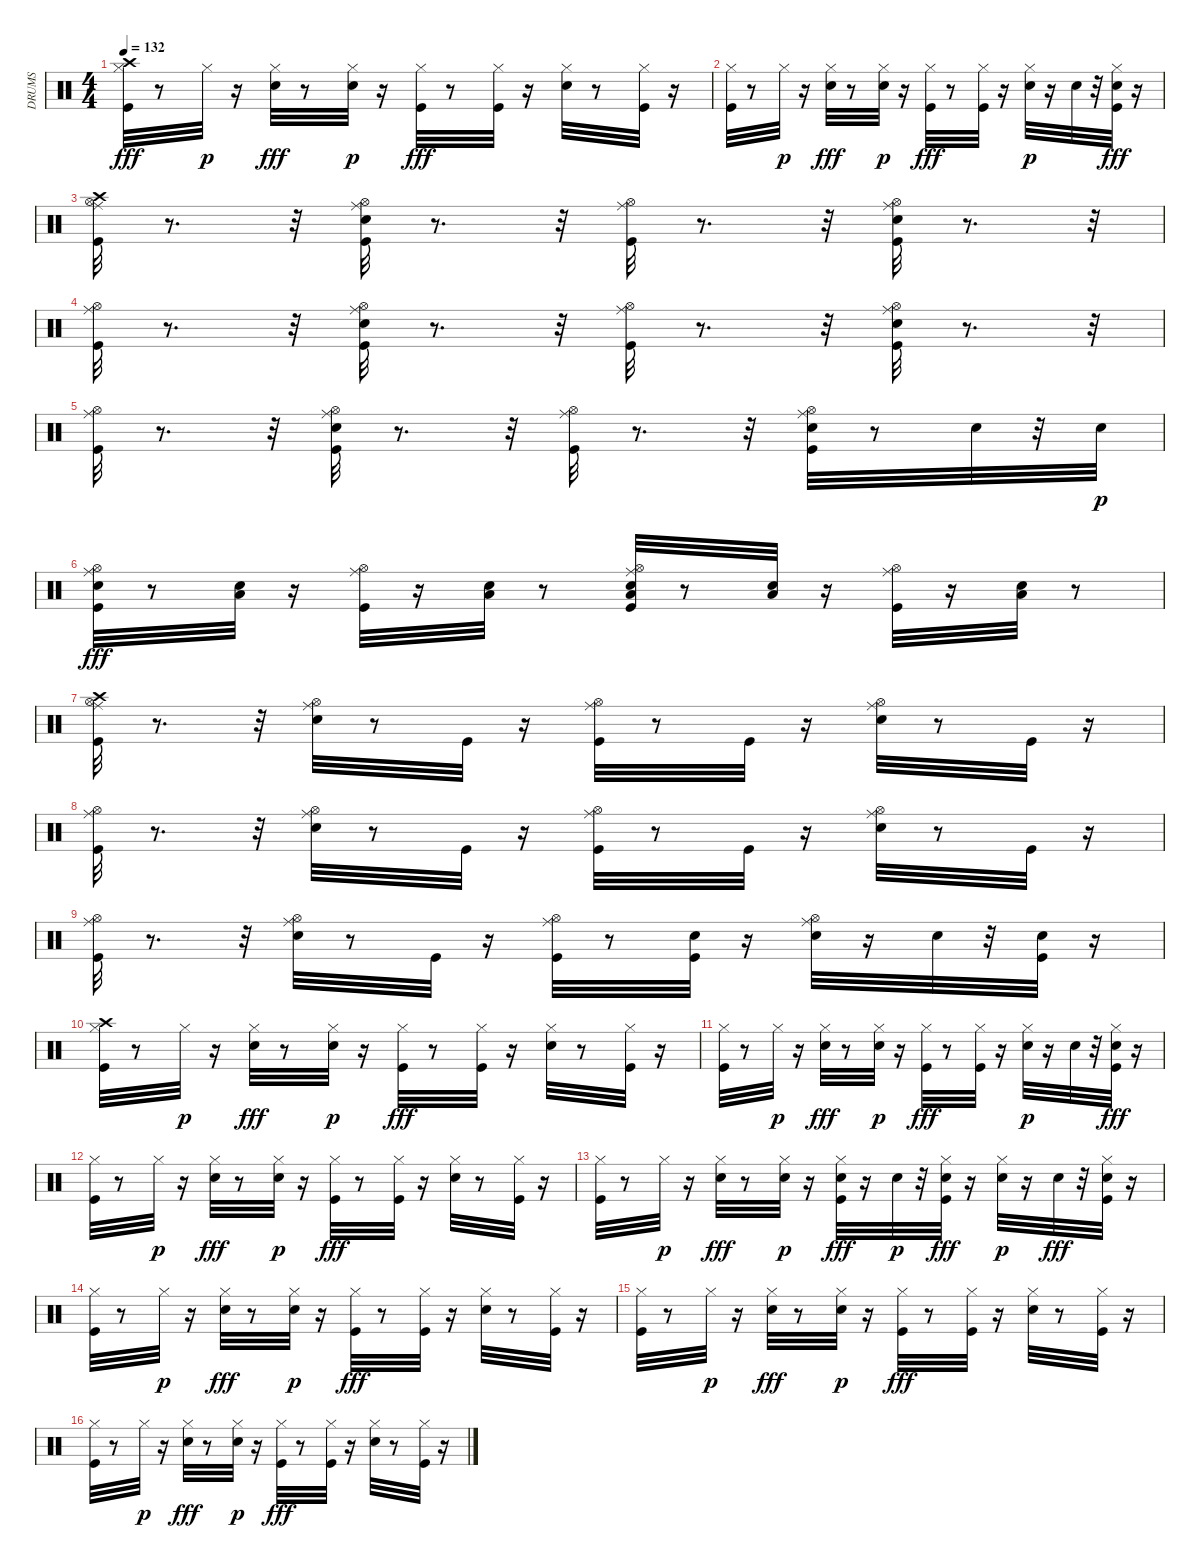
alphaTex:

\track ("DRUMS" "DRUMS") {instrument percussion}
\staff {score}
\articulation defaults
\ts (4 4)
\tempo 132
\clef neutral
\ks c
("Hi-Hat (closed)" "Kick (hit)" "Crash high (hit)").32{dy fff} r.8 "Hi-Hat (closed)".32{dy p} r.16 ("Hi-Hat (closed)" "Snare (hit) 2").32{dy fff} r.8 ("Hi-Hat (closed)" "Snare (hit) 2").32{dy p} r.16 ("Hi-Hat (closed)" "Kick (hit)").32{dy fff} r.8 ("Hi-Hat (closed)" "Kick (hit)").32 r.16 ("Hi-Hat (closed)" "Snare (hit) 2").32 r.8 ("Hi-Hat (closed)" "Kick (hit)").32 r.16 |
("Hi-Hat (closed)" "Kick (hit)").32 r.8 "Hi-Hat (closed)".32{dy p} r.16 ("Hi-Hat (closed)" "Snare (hit) 2").32{dy fff} r.8 ("Hi-Hat (closed)" "Snare (hit) 2").32{dy p} r.16 ("Hi-Hat (closed)" "Kick (hit)").32{dy fff} r.8 ("Hi-Hat (closed)" "Kick (hit)").32 r.16 ("Hi-Hat (closed)" "Snare (hit) 2").32{dy p} r.16 "Snare (hit) 2".32 r.32 ("Hi-Hat (closed)" "Snare (hit) 2" "Kick (hit)").32{dy fff} r.16 |
("Kick (hit)" "Crash high (hit)" "Ride (middle)" "Hi-Hat (open)").32 r.8{d} r.32 ("Snare (hit) 2" "Kick (hit)" "Ride (middle)" "Hi-Hat (open)").32 r.8{d} r.32 ("Kick (hit)" "Ride (middle)" "Hi-Hat (open)").32 r.8{d} r.32 ("Snare (hit) 2" "Kick (hit)" "Ride (middle)" "Hi-Hat (open)").32 r.8{d} r.32 |
("Kick (hit)" "Ride (middle)" "Hi-Hat (open)").32 r.8{d} r.32 ("Snare (hit) 2" "Kick (hit)" "Ride (middle)" "Hi-Hat (open)").32 r.8{d} r.32 ("Kick (hit)" "Ride (middle)" "Hi-Hat (open)").32 r.8{d} r.32 ("Snare (hit) 2" "Kick (hit)" "Ride (middle)" "Hi-Hat (open)").32 r.8{d} r.32 |
("Kick (hit)" "Ride (middle)" "Hi-Hat (open)").32 r.8{d} r.32 ("Snare (hit) 2" "Kick (hit)" "Ride (middle)" "Hi-Hat (open)").32 r.8{d} r.32 ("Kick (hit)" "Ride (middle)" "Hi-Hat (open)").32 r.8{d} r.32 ("Snare (hit) 2" "Kick (hit)" "Ride (middle)" "Hi-Hat (open)").32 r.8 "Snare (hit) 2".32 r.32 "Snare (hit) 2".32{dy p} |
("Snare (hit) 2" "Kick (hit)" "Ride (middle)" "Hi-Hat (open)").32{dy fff} r.8 ("Snare (hit) 2" "Low Tom (hit)").32 r.16 ("Kick (hit)" "Ride (middle)" "Hi-Hat (open)").32 r.16 ("Snare (hit) 2" "Low Tom (hit)").32 r.8 ("Snare (hit) 2" "Low Tom (hit)" "Kick (hit)" "Ride (middle)" "Hi-Hat (open)").32 r.8 ("Snare (hit) 2" "Low Tom (hit)").32 r.16 ("Kick (hit)" "Ride (middle)" "Hi-Hat (open)").32 r.16 ("Snare (hit) 2" "Low Tom (hit)").32 r.8 |
("Kick (hit)" "Crash high (hit)" "Ride (middle)" "Hi-Hat (open)").32 r.8{d} r.32 ("Snare (hit) 2" "Ride (middle)" "Hi-Hat (open)").32 r.8 "Kick (hit)".32 r.16 ("Kick (hit)" "Ride (middle)" "Hi-Hat (open)").32 r.8 "Kick (hit)".32 r.16 ("Snare (hit) 2" "Ride (middle)" "Hi-Hat (open)").32 r.8 "Kick (hit)".32 r.16 |
("Kick (hit)" "Ride (middle)" "Hi-Hat (open)").32 r.8{d} r.32 ("Snare (hit) 2" "Ride (middle)" "Hi-Hat (open)").32 r.8 "Kick (hit)".32 r.16 ("Kick (hit)" "Ride (middle)" "Hi-Hat (open)").32 r.8 "Kick (hit)".32 r.16 ("Snare (hit) 2" "Ride (middle)" "Hi-Hat (open)").32 r.8 "Kick (hit)".32 r.16 |
("Kick (hit)" "Ride (middle)" "Hi-Hat (open)").32 r.8{d} r.32 ("Snare (hit) 2" "Ride (middle)" "Hi-Hat (open)").32 r.8 "Kick (hit)".32 r.16 ("Kick (hit)" "Ride (middle)" "Hi-Hat (open)").32 r.8 ("Snare (hit) 2" "Kick (hit)").32 r.16 ("Snare (hit) 2" "Ride (middle)" "Hi-Hat (open)").32 r.16 "Snare (hit) 2".32 r.32 ("Snare (hit) 2" "Kick (hit)").32 r.16 |
("Hi-Hat (closed)" "Kick (hit)" "Crash high (hit)").32 r.8 "Hi-Hat (closed)".32{dy p} r.16 ("Hi-Hat (closed)" "Snare (hit) 2").32{dy fff} r.8 ("Hi-Hat (closed)" "Snare (hit) 2").32{dy p} r.16 ("Hi-Hat (closed)" "Kick (hit)").32{dy fff} r.8 ("Hi-Hat (closed)" "Kick (hit)").32 r.16 ("Hi-Hat (closed)" "Snare (hit) 2").32 r.8 ("Hi-Hat (closed)" "Kick (hit)").32 r.16 |
("Hi-Hat (closed)" "Kick (hit)").32 r.8 "Hi-Hat (closed)".32{dy p} r.16 ("Hi-Hat (closed)" "Snare (hit) 2").32{dy fff} r.8 ("Hi-Hat (closed)" "Snare (hit) 2").32{dy p} r.16 ("Hi-Hat (closed)" "Kick (hit)").32{dy fff} r.8 ("Hi-Hat (closed)" "Kick (hit)").32 r.16 ("Hi-Hat (closed)" "Snare (hit) 2").32{dy p} r.16 "Snare (hit) 2".32 r.32 ("Hi-Hat (closed)" "Snare (hit) 2" "Kick (hit)").32{dy fff} r.16 |
("Hi-Hat (closed)" "Kick (hit)").32 r.8 "Hi-Hat (closed)".32{dy p} r.16 ("Hi-Hat (closed)" "Snare (hit) 2").32{dy fff} r.8 ("Hi-Hat (closed)" "Snare (hit) 2").32{dy p} r.16 ("Hi-Hat (closed)" "Kick (hit)").32{dy fff} r.8 ("Hi-Hat (closed)" "Kick (hit)").32 r.16 ("Hi-Hat (closed)" "Snare (hit) 2").32 r.8 ("Hi-Hat (closed)" "Kick (hit)").32 r.16 |
("Hi-Hat (closed)" "Kick (hit)").32 r.8 "Hi-Hat (closed)".32{dy p} r.16 ("Hi-Hat (closed)" "Snare (hit) 2").32{dy fff} r.8 ("Hi-Hat (closed)" "Snare (hit) 2").32{dy p} r.16 ("Hi-Hat (closed)" "Snare (hit) 2" "Kick (hit)").32{dy fff} r.16 "Snare (hit) 2".32{dy p} r.32 ("Hi-Hat (closed)" "Snare (hit) 2" "Kick (hit)").32{dy fff} r.16 ("Hi-Hat (closed)" "Snare (hit) 2").32{dy p} r.16 "Snare (hit) 2".32{dy fff} r.32 ("Hi-Hat (closed)" "Snare (hit) 2" "Kick (hit)").32 r.16 |
("Hi-Hat (closed)" "Kick (hit)").32 r.8 "Hi-Hat (closed)".32{dy p} r.16 ("Hi-Hat (closed)" "Snare (hit) 2").32{dy fff} r.8 ("Hi-Hat (closed)" "Snare (hit) 2").32{dy p} r.16 ("Hi-Hat (closed)" "Kick (hit)").32{dy fff} r.8 ("Hi-Hat (closed)" "Kick (hit)").32 r.16 ("Hi-Hat (closed)" "Snare (hit) 2").32 r.8 ("Hi-Hat (closed)" "Kick (hit)").32 r.16 |
("Hi-Hat (closed)" "Kick (hit)").32 r.8 "Hi-Hat (closed)".32{dy p} r.16 ("Hi-Hat (closed)" "Snare (hit) 2").32{dy fff} r.8 ("Hi-Hat (closed)" "Snare (hit) 2").32{dy p} r.16 ("Hi-Hat (closed)" "Kick (hit)").32{dy fff} r.8 ("Hi-Hat (closed)" "Kick (hit)").32 r.16 ("Hi-Hat (closed)" "Snare (hit) 2").32 r.8 ("Hi-Hat (closed)" "Kick (hit)").32 r.16 |
("Hi-Hat (closed)" "Kick (hit)").32 r.8 "Hi-Hat (closed)".32{dy p} r.16 ("Hi-Hat (closed)" "Snare (hit) 2").32{dy fff} r.8 ("Hi-Hat (closed)" "Snare (hit) 2").32{dy p} r.16 ("Hi-Hat (closed)" "Kick (hit)").32{dy fff} r.8 ("Hi-Hat (closed)" "Kick (hit)").32 r.16 ("Hi-Hat (closed)" "Snare (hit) 2").32 r.8 ("Hi-Hat (closed)" "Kick (hit)").32 r.16
